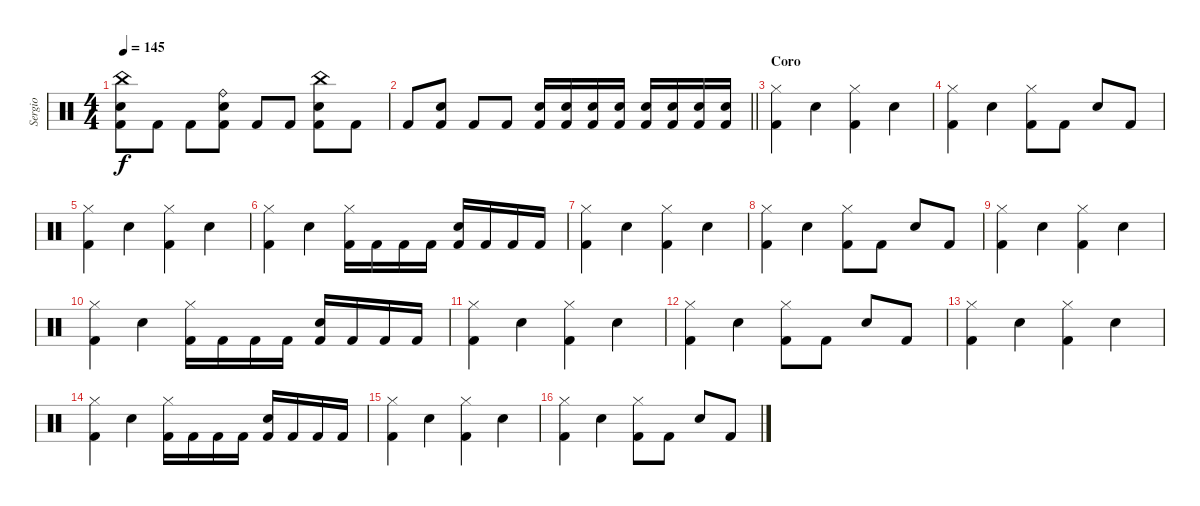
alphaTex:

\track ("Sergio" "Sergio") {instrument percussion}
\staff {score}
\articulation defaults
\ts (4 4)
\tempo 145
\clef neutral
\ks c
("China (hit)" "Electric Snare (hit)" "Kick (hit) 2").8{dy f} "Kick (hit) 2".8 "Kick (hit) 2".8 ("Ride (bell)" "Electric Snare (hit)" "Kick (hit) 2").8 "Kick (hit) 2".8 "Kick (hit) 2".8 ("China (hit)" "Electric Snare (hit)" "Kick (hit) 2").8 "Kick (hit) 2".8 |
\barLineRight lightlight "Kick (hit) 2".8
("Electric Snare (hit)" "Kick (hit) 2").8 "Kick (hit) 2".8 "Kick (hit) 2".8 ("Electric Snare (hit)" "Kick (hit) 2").16 ("Electric Snare (hit)" "Kick (hit) 2").16 ("Electric Snare (hit)" "Kick (hit) 2").16 ("Electric Snare (hit)" "Kick (hit) 2").16 ("Electric Snare (hit)" "Kick (hit) 2").16 ("Electric Snare (hit)" "Kick (hit) 2").16 ("Electric Snare (hit)" "Kick (hit) 2").16 ("Electric Snare (hit)" "Kick (hit) 2").16 |
\section ("" "Coro")
("Hi-Hat (closed)" "Kick (hit) 2").4 "Electric Snare (hit)".4 ("Hi-Hat (closed)" "Kick (hit) 2").4 "Electric Snare (hit)".4 |
("Hi-Hat (closed)" "Kick (hit) 2").4 "Electric Snare (hit)".4 ("Hi-Hat (closed)" "Kick (hit) 2").8 "Kick (hit) 2".8 "Electric Snare (hit)".8 "Kick (hit) 2".8 |
("Hi-Hat (closed)" "Kick (hit) 2").4 "Electric Snare (hit)".4 ("Hi-Hat (closed)" "Kick (hit) 2").4 "Electric Snare (hit)".4 |
("Hi-Hat (closed)" "Kick (hit) 2").4 "Electric Snare (hit)".4 ("Hi-Hat (closed)" "Kick (hit) 2").16 "Kick (hit) 2".16 "Kick (hit) 2".16 "Kick (hit) 2".16 ("Electric Snare (hit)" "Kick (hit) 2").16 "Kick (hit) 2".16 "Kick (hit) 2".16 "Kick (hit) 2".16 |
("Hi-Hat (closed)" "Kick (hit) 2").4 "Electric Snare (hit)".4 ("Hi-Hat (closed)" "Kick (hit) 2").4 "Electric Snare (hit)".4 |
("Hi-Hat (closed)" "Kick (hit) 2").4 "Electric Snare (hit)".4 ("Hi-Hat (closed)" "Kick (hit) 2").8 "Kick (hit) 2".8 "Electric Snare (hit)".8 "Kick (hit) 2".8 |
("Hi-Hat (closed)" "Kick (hit) 2").4 "Electric Snare (hit)".4 ("Hi-Hat (closed)" "Kick (hit) 2").4 "Electric Snare (hit)".4 |
("Hi-Hat (closed)" "Kick (hit) 2").4 "Electric Snare (hit)".4 ("Hi-Hat (closed)" "Kick (hit) 2").16 "Kick (hit) 2".16 "Kick (hit) 2".16 "Kick (hit) 2".16 ("Electric Snare (hit)" "Kick (hit) 2").16 "Kick (hit) 2".16 "Kick (hit) 2".16 "Kick (hit) 2".16 |
("Hi-Hat (closed)" "Kick (hit) 2").4 "Electric Snare (hit)".4 ("Hi-Hat (closed)" "Kick (hit) 2").4 "Electric Snare (hit)".4 |
("Hi-Hat (closed)" "Kick (hit) 2").4 "Electric Snare (hit)".4 ("Hi-Hat (closed)" "Kick (hit) 2").8 "Kick (hit) 2".8 "Electric Snare (hit)".8 "Kick (hit) 2".8 |
("Hi-Hat (closed)" "Kick (hit) 2").4 "Electric Snare (hit)".4 ("Hi-Hat (closed)" "Kick (hit) 2").4 "Electric Snare (hit)".4 |
("Hi-Hat (closed)" "Kick (hit) 2").4 "Electric Snare (hit)".4 ("Hi-Hat (closed)" "Kick (hit) 2").16 "Kick (hit) 2".16 "Kick (hit) 2".16 "Kick (hit) 2".16 ("Electric Snare (hit)" "Kick (hit) 2").16 "Kick (hit) 2".16 "Kick (hit) 2".16 "Kick (hit) 2".16 |
("Hi-Hat (closed)" "Kick (hit) 2").4 "Electric Snare (hit)".4 ("Hi-Hat (closed)" "Kick (hit) 2").4 "Electric Snare (hit)".4 |
("Hi-Hat (closed)" "Kick (hit) 2").4 "Electric Snare (hit)".4 ("Hi-Hat (closed)" "Kick (hit) 2").8 "Kick (hit) 2".8 "Electric Snare (hit)".8 "Kick (hit) 2".8
